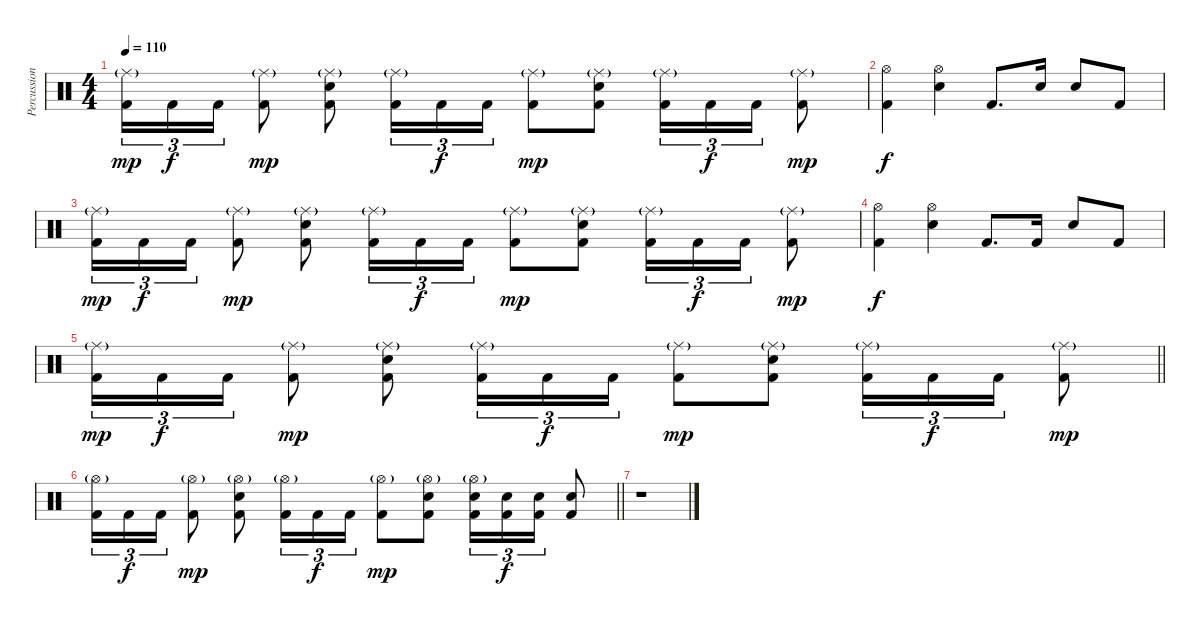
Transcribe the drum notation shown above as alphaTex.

\track ("Percussion" "Percussion") {instrument percussion}
\staff {score}
\articulation defaults
\ts (4 4)
\tempo 110
\clef neutral
\ks c
("Ride (middle)"{g} "Kick (hit) 2").16{tu (3 2) dy mp} "Kick (hit) 2".16{tu (3 2) dy f} "Kick (hit) 2".16{tu (3 2)} ("Ride (middle)"{g} "Kick (hit) 2").8{dy mp} ("Ride (middle)"{g} "Electric Snare (hit)" "Kick (hit) 2").8 ("Ride (middle)"{g} "Kick (hit) 2").16{tu (3 2)} "Kick (hit) 2".16{tu (3 2) dy f} "Kick (hit) 2".16{tu (3 2)} ("Ride (middle)"{g} "Kick (hit) 2").8{dy mp} ("Ride (middle)"{g} "Electric Snare (hit)" "Kick (hit) 2").8 ("Ride (middle)"{g} "Kick (hit) 2").16{tu (3 2)} "Kick (hit) 2".16{tu (3 2) dy f} "Kick (hit) 2".16{tu (3 2)} ("Ride (middle)"{g} "Kick (hit) 2").8{dy mp} |
("Hi-Hat (open)" "Kick (hit) 2").4{dy f} ("Hi-Hat (open)" "Electric Snare (hit)").4 "Kick (hit) 2".8{d} "Electric Snare (hit)".16 "Electric Snare (hit)".8 "Kick (hit) 2".8 |
("Ride (middle)"{g} "Kick (hit) 2").16{tu (3 2) dy mp} "Kick (hit) 2".16{tu (3 2) dy f} "Kick (hit) 2".16{tu (3 2)} ("Ride (middle)"{g} "Kick (hit) 2").8{dy mp} ("Ride (middle)"{g} "Electric Snare (hit)" "Kick (hit) 2").8 ("Ride (middle)"{g} "Kick (hit) 2").16{tu (3 2)} "Kick (hit) 2".16{tu (3 2) dy f} "Kick (hit) 2".16{tu (3 2)} ("Ride (middle)"{g} "Kick (hit) 2").8{dy mp} ("Ride (middle)"{g} "Electric Snare (hit)" "Kick (hit) 2").8 ("Ride (middle)"{g} "Kick (hit) 2").16{tu (3 2)} "Kick (hit) 2".16{tu (3 2) dy f} "Kick (hit) 2".16{tu (3 2)} ("Ride (middle)"{g} "Kick (hit) 2").8{dy mp} |
("Hi-Hat (open)" "Kick (hit) 2").4{dy f} ("Hi-Hat (open)" "Electric Snare (hit)").4 "Kick (hit) 2".8{d} "Kick (hit) 2".16 "Electric Snare (hit)".8 "Kick (hit) 2".8 |
\barLineRight lightlight
("Ride (middle)"{g} "Kick (hit) 2").16{tu (3 2) dy mp} "Kick (hit) 2".16{tu (3 2) dy f} "Kick (hit) 2".16{tu (3 2)} ("Ride (middle)"{g} "Kick (hit) 2").8{dy mp} ("Ride (middle)"{g} "Electric Snare (hit)" "Kick (hit) 2").8 ("Ride (middle)"{g} "Kick (hit) 2").16{tu (3 2)} "Kick (hit) 2".16{tu (3 2) dy f} "Kick (hit) 2".16{tu (3 2)} ("Ride (middle)"{g} "Kick (hit) 2").8{dy mp} ("Ride (middle)"{g} "Electric Snare (hit)" "Kick (hit) 2").8 ("Ride (middle)"{g} "Kick (hit) 2").16{tu (3 2)} "Kick (hit) 2".16{tu (3 2) dy f} "Kick (hit) 2".16{tu (3 2)} ("Ride (middle)"{g} "Kick (hit) 2").8{dy mp} |
\barLineRight lightlight
("Hi-Hat (open)"{g} "Kick (hit) 2").16{tu (3 2)} "Kick (hit) 2".16{tu (3 2) dy f} "Kick (hit) 2".16{tu (3 2)} ("Hi-Hat (open)"{g} "Kick (hit) 2").8{dy mp} ("Hi-Hat (open)"{g} "Electric Snare (hit)" "Kick (hit) 2").8 ("Hi-Hat (open)"{g} "Kick (hit) 2").16{tu (3 2)} "Kick (hit) 2".16{tu (3 2) dy f} "Kick (hit) 2".16{tu (3 2)} ("Hi-Hat (open)"{g} "Kick (hit) 2").8{dy mp} ("Hi-Hat (open)"{g} "Electric Snare (hit)" "Kick (hit) 2").8 ("Hi-Hat (open)"{g} "Electric Snare (hit)" "Kick (hit) 2").16{tu (3 2)} ("Electric Snare (hit)" "Kick (hit) 2").16{tu (3 2) dy f} ("Electric Snare (hit)" "Kick (hit) 2").16{tu (3 2)} ("Electric Snare (hit)" "Kick (hit) 2").8 |
r.1
